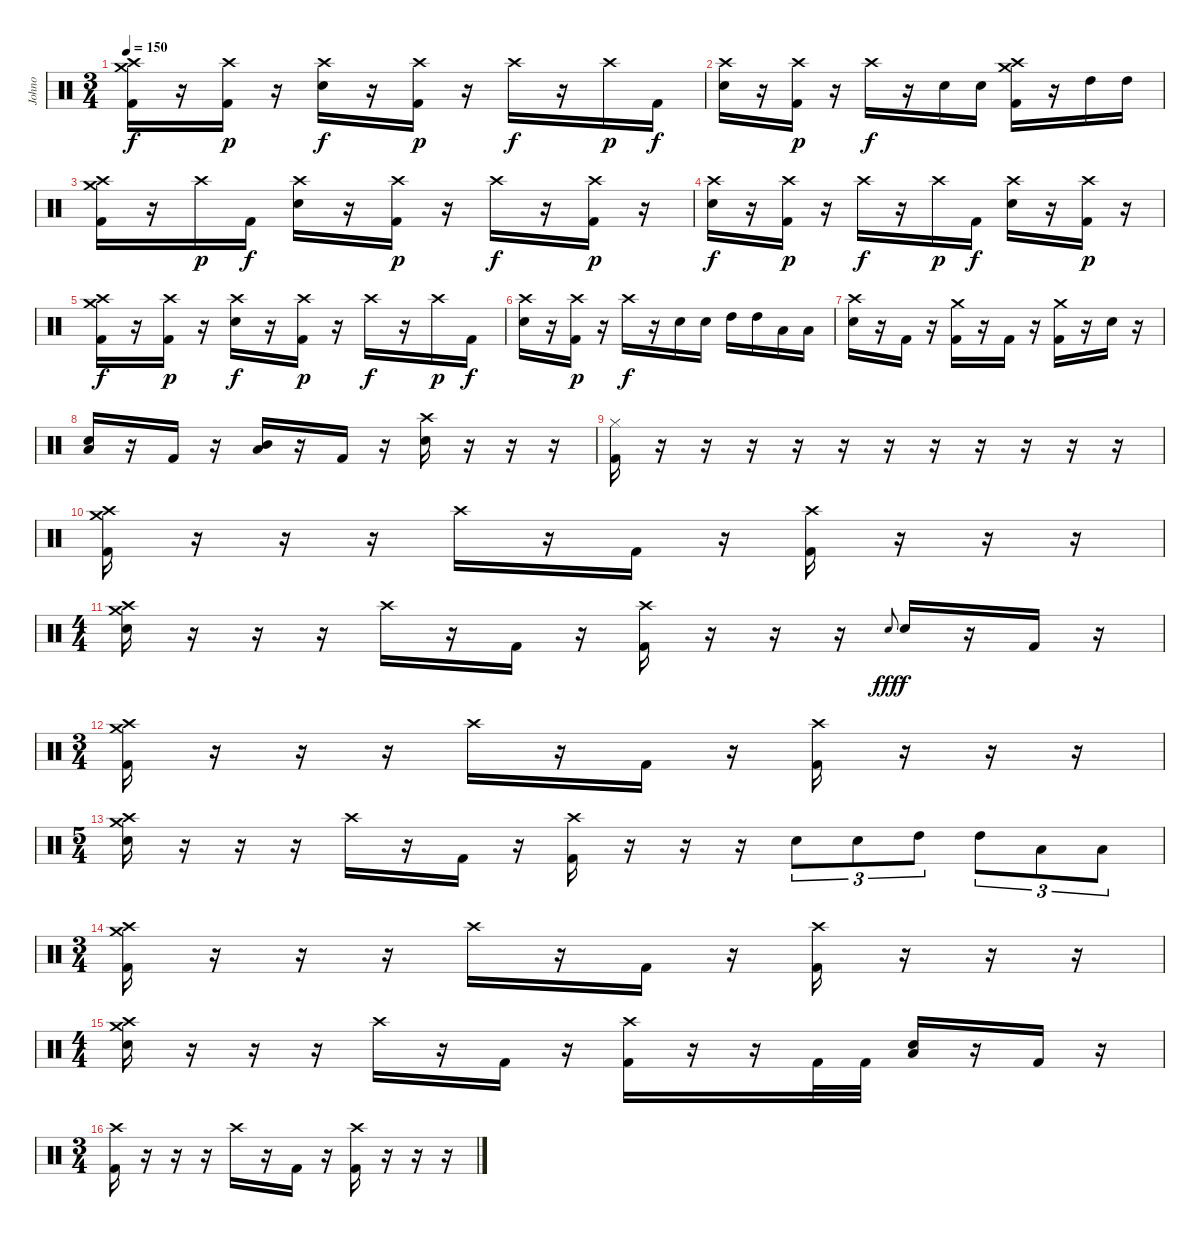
\track ("Johno" "Johno") {instrument percussion}
\staff {score}
\articulation defaults
\ts (3 4)
\tempo 150
\clef neutral
\ks c
("Crash medium (hit)" "Crash high (hit)" "Kick (hit) 2").16{dy f} r.16 ("Crash high (hit)" "Kick (hit) 2").16{dy p} r.16 ("Crash high (hit)" "Electric Snare (hit)").16{dy f} r.16 ("Crash high (hit)" "Kick (hit) 2").16{dy p} r.16 "Crash high (hit)".16{dy f} r.16 "Crash high (hit)".16{dy p} "Kick (hit) 2".16{dy f} |
("Crash high (hit)" "Electric Snare (hit)").16 r.16 ("Crash high (hit)" "Kick (hit) 2").16{dy p} r.16 "Crash high (hit)".16{dy f} r.16 "Electric Snare (hit)".16 "Electric Snare (hit)".16 ("Crash high (hit)" "Crash medium (hit)" "Kick (hit) 2").16 r.16 "High Tom (hit)".16 "High Tom (hit)".16 |
("Crash medium (hit)" "Crash high (hit)" "Kick (hit) 2").16 r.16 "Crash high (hit)".16{dy p} "Kick (hit) 2".16{dy f} ("Crash high (hit)" "Electric Snare (hit)").16 r.16 ("Crash high (hit)" "Kick (hit) 2").16{dy p} r.16 "Crash high (hit)".16{dy f} r.16 ("Crash high (hit)" "Kick (hit) 2").16{dy p} r.16 |
("Crash high (hit)" "Electric Snare (hit)").16{dy f} r.16 ("Crash high (hit)" "Kick (hit) 2").16{dy p} r.16 "Crash high (hit)".16{dy f} r.16 "Crash high (hit)".16{dy p} "Kick (hit) 2".16{dy f} ("Crash high (hit)" "Electric Snare (hit)").16 r.16 ("Crash high (hit)" "Kick (hit) 2").16{dy p} r.16 |
("Crash medium (hit)" "Crash high (hit)" "Kick (hit) 2").16{dy f} r.16 ("Crash high (hit)" "Kick (hit) 2").16{dy p} r.16 ("Crash high (hit)" "Electric Snare (hit)").16{dy f} r.16 ("Crash high (hit)" "Kick (hit) 2").16{dy p} r.16 "Crash high (hit)".16{dy f} r.16 "Crash high (hit)".16{dy p} "Kick (hit) 2".16{dy f} |
("Crash high (hit)" "Electric Snare (hit)").16 r.16 ("Crash high (hit)" "Kick (hit) 2").16{dy p} r.16 "Crash high (hit)".16{dy f} r.16 "Electric Snare (hit)".16 "Electric Snare (hit)".16 "High Tom (hit)".16 "High Tom (hit)".16 "Low Floor Tom (hit)".16 "Low Floor Tom (hit)".16 |
("Crash high (hit)" "Electric Snare (hit)").16 r.16 "Kick (hit) 2".16 r.16 ("Crash medium (hit)" "Kick (hit) 2").16 r.16 "Kick (hit) 2".16 r.16 ("Crash medium (hit)" "Kick (hit) 2").16 r.16 "Electric Snare (hit)".16 r.16 |
("Low Tom (hit)" "Electric Snare (hit)").16 r.16 "Kick (hit) 2".16 r.16 ("Mid Tom (hit)" "Low Tom (hit)").16 r.16 "Kick (hit) 2".16 r.16 ("Crash high (hit)" "Electric Snare (hit)").16 r.16 r.16 r.16 |
("Hi-Hat (closed)" "Kick (hit) 2").16 r.16 r.16 r.16 r.16 r.16 r.16 r.16 r.16 r.16 r.16 r.16 |
("Crash medium (hit)" "Crash high (hit)" "Kick (hit) 2").16 r.16 r.16 r.16 "Crash high (hit)".16 r.16 "Kick (hit) 2".16 r.16 ("Crash high (hit)" "Kick (hit) 2").16 r.16 r.16 r.16 |
\ts (4 4)
("Crash high (hit)" "Crash medium (hit)" "Electric Snare (hit)").16 r.16 r.16 r.16 "Crash high (hit)".16 r.16 "Kick (hit) 2".16 r.16 ("Crash high (hit)" "Kick (hit) 2").16 r.16 r.16 r.16 "Electric Snare (hit)".8{gr onbeat dy fff} "Electric Snare (hit)".16{dy f} r.16 "Kick (hit) 2".16 r.16 |
\ts (3 4)
("Crash medium (hit)" "Crash high (hit)" "Kick (hit) 2").16 r.16 r.16 r.16 "Crash high (hit)".16 r.16 "Kick (hit) 2".16 r.16 ("Crash high (hit)" "Kick (hit) 2").16 r.16 r.16 r.16 |
\ts (5 4)
("Crash high (hit)" "Crash medium (hit)" "Electric Snare (hit)").16 r.16 r.16 r.16 "Crash high (hit)".16 r.16 "Kick (hit) 2".16 r.16 ("Crash high (hit)" "Kick (hit) 2").16 r.16 r.16 r.16 "Electric Snare (hit)".8{tu (3 2)} "Electric Snare (hit)".8{tu (3 2)} "High Tom (hit)".8{tu (3 2)} "High Tom (hit)".8{tu (3 2)} "Low Floor Tom (hit)".8{tu (3 2)} "Low Floor Tom (hit)".8{tu (3 2)} |
\ts (3 4)
("Crash medium (hit)" "Crash high (hit)" "Kick (hit) 2").16 r.16 r.16 r.16 "Crash high (hit)".16 r.16 "Kick (hit) 2".16 r.16 ("Crash high (hit)" "Kick (hit) 2").16 r.16 r.16 r.16 |
\ts (4 4)
("Crash high (hit)" "Crash medium (hit)" "Electric Snare (hit)").16 r.16 r.16 r.16 "Crash high (hit)".16 r.16 "Kick (hit) 2".16 r.16 ("Crash high (hit)" "Kick (hit) 2").16 r.16 r.16 "Kick (hit) 2".32 "Kick (hit) 2".32 ("Low Floor Tom (hit)" "Electric Snare (hit)").16 r.16 "Kick (hit) 2".16 r.16 |
\ts (3 4)
("Crash high (hit)" "Kick (hit) 2").16 r.16 r.16 r.16 "Crash high (hit)".16 r.16 "Kick (hit) 2".16 r.16 ("Crash high (hit)" "Kick (hit) 2").16 r.16 r.16 r.16
